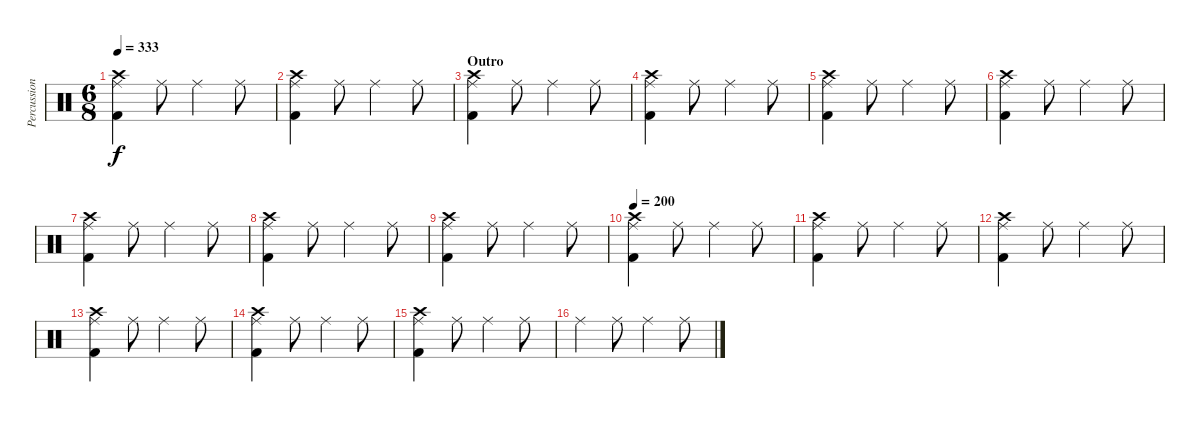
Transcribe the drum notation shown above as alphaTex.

\track ("Percussion" "Percussion") {instrument percussion}
\staff {score}
\articulation defaults
\ts (6 8)
\tempo 333
\clef neutral
\ks c
("Crash high (hit)" "Ride (middle)" "Kick (hit) 2").4{dy f} "Ride (middle)".8 "Ride (middle)".4 "Ride (middle)".8 |
("Crash high (hit)" "Ride (middle)" "Kick (hit) 2").4 "Ride (middle)".8 "Ride (middle)".4 "Ride (middle)".8 |
\section ("" "Outro")
("Crash high (hit)" "Ride (middle)" "Kick (hit) 2").4 "Ride (middle)".8 "Ride (middle)".4 "Ride (middle)".8 |
("Crash high (hit)" "Ride (middle)" "Kick (hit) 2").4 "Ride (middle)".8 "Ride (middle)".4 "Ride (middle)".8 |
("Crash high (hit)" "Ride (middle)" "Kick (hit) 2").4 "Ride (middle)".8 "Ride (middle)".4 "Ride (middle)".8 |
("Crash high (hit)" "Ride (middle)" "Kick (hit) 2").4 "Ride (middle)".8 "Ride (middle)".4 "Ride (middle)".8 |
("Crash high (hit)" "Ride (middle)" "Kick (hit) 2").4 "Ride (middle)".8 "Ride (middle)".4 "Ride (middle)".8 |
("Crash high (hit)" "Ride (middle)" "Kick (hit) 2").4 "Ride (middle)".8 "Ride (middle)".4 "Ride (middle)".8 |
("Crash high (hit)" "Ride (middle)" "Kick (hit) 2").4 "Ride (middle)".8 "Ride (middle)".4 "Ride (middle)".8 |
\tempo 200
("Crash high (hit)" "Ride (middle)" "Kick (hit) 2").4 "Ride (middle)".8 "Ride (middle)".4 "Ride (middle)".8 |
("Crash high (hit)" "Ride (middle)" "Kick (hit) 2").4 "Ride (middle)".8 "Ride (middle)".4 "Ride (middle)".8 |
("Crash high (hit)" "Ride (middle)" "Kick (hit) 2").4 "Ride (middle)".8 "Ride (middle)".4 "Ride (middle)".8 |
("Crash high (hit)" "Ride (middle)" "Kick (hit) 2").4 "Ride (middle)".8 "Ride (middle)".4 "Ride (middle)".8 |
("Crash high (hit)" "Ride (middle)" "Kick (hit) 2").4 "Ride (middle)".8 "Ride (middle)".4 "Ride (middle)".8 |
("Crash high (hit)" "Ride (middle)" "Kick (hit) 2").4 "Ride (middle)".8 "Ride (middle)".4 "Ride (middle)".8 |
"Ride (middle)".4 "Ride (middle)".8 "Ride (middle)".4 "Ride (middle)".8
